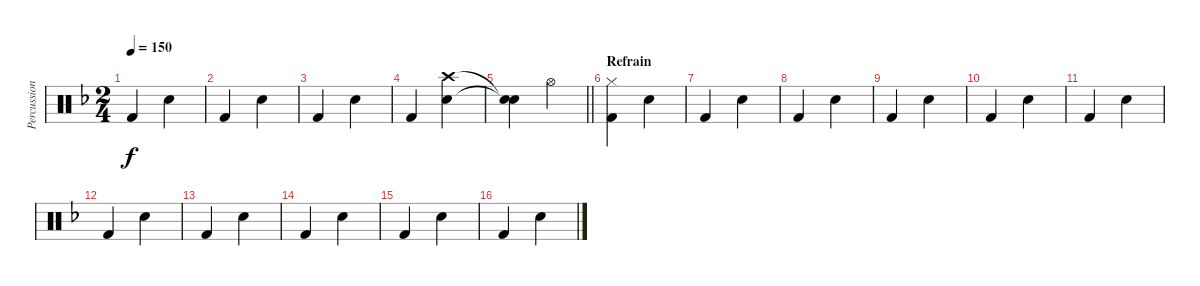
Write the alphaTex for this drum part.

\track ("Percussions" "Percussion") {instrument percussion}
\staff {score}
\articulation defaults
\ts (2 4)
\tempo 150
\clef neutral
\ks f "Kick (hit) 2".4{dy f} "Snare (hit) 2".4
|
"Kick (hit) 2".4 "Snare (hit) 2".4 |
"Kick (hit) 2".4 "Snare (hit) 2".4 |
"Kick (hit) 2".4 ("Crash high (hit)" "Snare (hit) 2").4 |
\barLineRight lightlight
("Snare (hit)"{t} "Snare (hit)"{t}).4 "Hi-Hat (open)".4 |
\section ("" "Refrain")
("Hi-Hat (closed)" "Kick (hit) 2").4 "Snare (hit) 2".4 |
"Kick (hit) 2".4 "Snare (hit) 2".4 |
"Kick (hit) 2".4 "Snare (hit) 2".4 |
"Kick (hit) 2".4 "Snare (hit) 2".4 |
"Kick (hit) 2".4 "Snare (hit) 2".4 |
"Kick (hit) 2".4 "Snare (hit) 2".4 |
"Kick (hit) 2".4 "Snare (hit) 2".4 |
"Kick (hit) 2".4 "Snare (hit) 2".4 |
"Kick (hit) 2".4 "Snare (hit) 2".4 |
"Kick (hit) 2".4 "Snare (hit) 2".4 |
"Kick (hit) 2".4 "Snare (hit) 2".4
